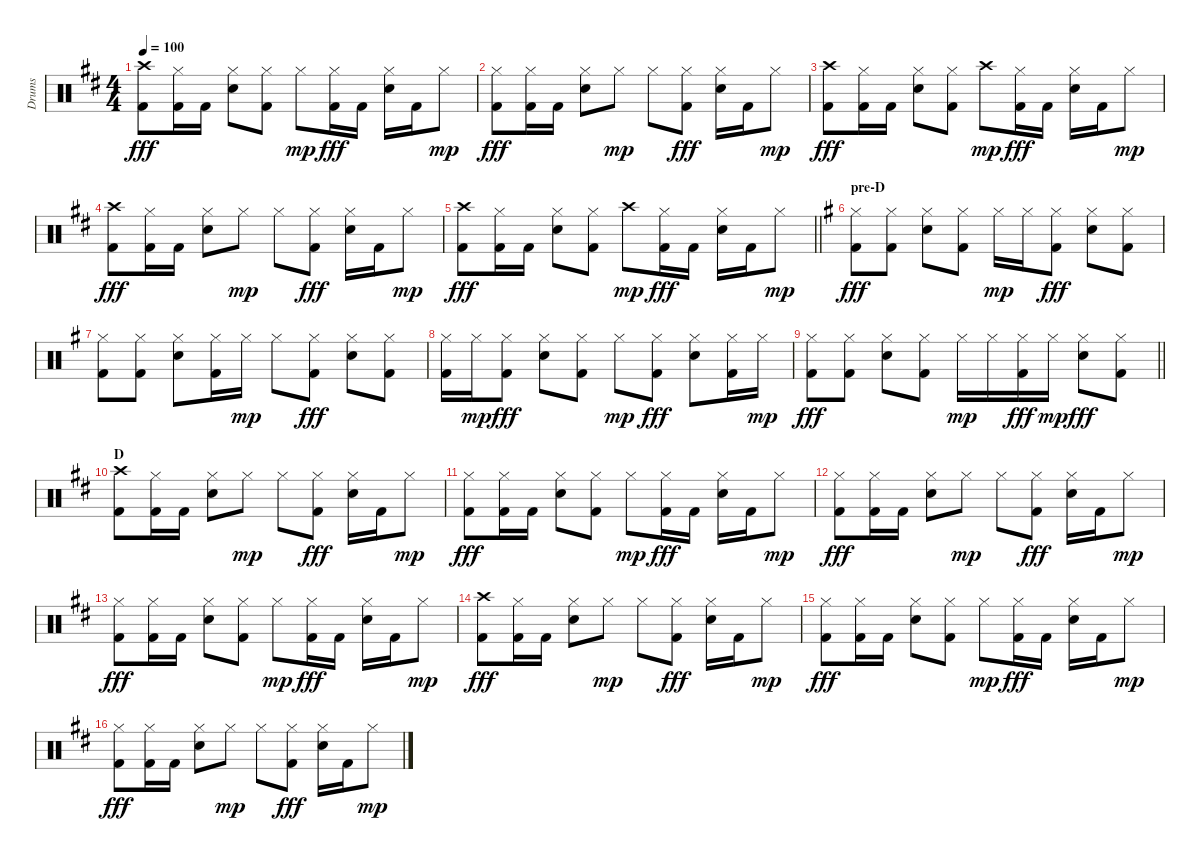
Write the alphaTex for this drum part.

\track ("Drums" "Drums") {instrument percussion}
\staff
\articulation defaults
\ts (4 4)
\tempo 100
\clef neutral
\ks bminor
("Crash high (hit)" "Kick (hit) 2").8{dy fff} ("Hi-Hat (closed)" "Kick (hit) 2").16 "Kick (hit) 2".16 ("Hi-Hat (closed)" "Electric Snare (hit)").8 ("Hi-Hat (closed)" "Kick (hit) 2").8 "Hi-Hat (closed)".8{dy mp} ("Hi-Hat (closed)" "Kick (hit) 2").16{dy fff} "Kick (hit) 2".16 ("Hi-Hat (closed)" "Electric Snare (hit)").16 "Kick (hit) 2".16 "Hi-Hat (closed)".8{dy mp} |
("Hi-Hat (closed)" "Kick (hit) 2").8{dy fff} ("Hi-Hat (closed)" "Kick (hit) 2").16 "Kick (hit) 2".16 ("Hi-Hat (closed)" "Electric Snare (hit)").8 "Hi-Hat (closed)".8{dy mp} "Hi-Hat (closed)".8 ("Hi-Hat (closed)" "Kick (hit) 2").8{dy fff} ("Hi-Hat (closed)" "Electric Snare (hit)").16 "Kick (hit) 2".16 "Hi-Hat (closed)".8{dy mp} |
("Crash high (hit)" "Kick (hit) 2").8{dy fff} ("Hi-Hat (closed)" "Kick (hit) 2").16 "Kick (hit) 2".16 ("Hi-Hat (closed)" "Electric Snare (hit)").8 ("Hi-Hat (closed)" "Kick (hit) 2").8 "Crash high (hit)".8{dy mp} ("Hi-Hat (closed)" "Kick (hit) 2").16{dy fff} "Kick (hit) 2".16 ("Hi-Hat (closed)" "Electric Snare (hit)").16 "Kick (hit) 2".16 "Hi-Hat (closed)".8{dy mp} |
("Crash high (hit)" "Kick (hit) 2").8{dy fff} ("Hi-Hat (closed)" "Kick (hit) 2").16 "Kick (hit) 2".16 ("Hi-Hat (closed)" "Electric Snare (hit)").8 "Hi-Hat (closed)".8{dy mp} "Hi-Hat (closed)".8 ("Hi-Hat (closed)" "Kick (hit) 2").8{dy fff} ("Hi-Hat (closed)" "Electric Snare (hit)").16 "Kick (hit) 2".16 "Hi-Hat (closed)".8{dy mp} |
\barLineRight lightlight
("Crash high (hit)" "Kick (hit) 2").8{dy fff} ("Hi-Hat (closed)" "Kick (hit) 2").16 "Kick (hit) 2".16 ("Hi-Hat (closed)" "Electric Snare (hit)").8 ("Hi-Hat (closed)" "Kick (hit) 2").8 "Crash high (hit)".8{dy mp} ("Hi-Hat (closed)" "Kick (hit) 2").16{dy fff} "Kick (hit) 2".16 ("Hi-Hat (closed)" "Electric Snare (hit)").16 "Kick (hit) 2".16 "Hi-Hat (closed)".8{dy mp} |
\section ("" "pre-D")
\ks eminor
("Hi-Hat (closed)" "Kick (hit) 2").8{dy fff} ("Hi-Hat (closed)" "Kick (hit) 2").8 ("Hi-Hat (closed)" "Electric Snare (hit)").8 ("Hi-Hat (closed)" "Kick (hit) 2").8 "Hi-Hat (closed)".16{dy mp} "Hi-Hat (closed)".16 ("Hi-Hat (closed)" "Kick (hit) 2").8{dy fff} ("Hi-Hat (closed)" "Electric Snare (hit)").8 ("Hi-Hat (closed)" "Kick (hit) 2").8 |
("Hi-Hat (closed)" "Kick (hit) 2").8 ("Hi-Hat (closed)" "Kick (hit) 2").8 ("Hi-Hat (closed)" "Electric Snare (hit)").8 ("Hi-Hat (closed)" "Kick (hit) 2").16 "Hi-Hat (closed)".16{dy mp} "Hi-Hat (closed)".8 ("Hi-Hat (closed)" "Kick (hit) 2").8{dy fff} ("Hi-Hat (closed)" "Electric Snare (hit)").8 ("Hi-Hat (closed)" "Kick (hit) 2").8 |
("Hi-Hat (closed)" "Kick (hit) 2").16 "Hi-Hat (closed)".16{dy mp} ("Hi-Hat (closed)" "Kick (hit) 2").8{dy fff} ("Hi-Hat (closed)" "Electric Snare (hit)").8 ("Hi-Hat (closed)" "Kick (hit) 2").8 "Hi-Hat (closed)".8{dy mp} ("Hi-Hat (closed)" "Kick (hit) 2").8{dy fff} ("Hi-Hat (closed)" "Electric Snare (hit)").8 ("Hi-Hat (closed)" "Kick (hit) 2").16 "Hi-Hat (closed)".16{dy mp} |
\barLineRight lightlight
("Hi-Hat (closed)" "Kick (hit) 2").8{dy fff} ("Hi-Hat (closed)" "Kick (hit) 2").8 ("Hi-Hat (closed)" "Electric Snare (hit)").8 ("Hi-Hat (closed)" "Kick (hit) 2").8 "Hi-Hat (closed)".16{dy mp} "Hi-Hat (closed)".16 ("Hi-Hat (closed)" "Kick (hit) 2").16{dy fff} "Hi-Hat (closed)".16{dy mp} ("Hi-Hat (closed)" "Electric Snare (hit)").8{dy fff} ("Hi-Hat (closed)" "Kick (hit) 2").8 |
\section ("" "D")
\ks bminor
("Crash high (hit)" "Kick (hit) 2").8 ("Hi-Hat (closed)" "Kick (hit) 2").16 "Kick (hit) 2".16 ("Hi-Hat (closed)" "Electric Snare (hit)").8 "Hi-Hat (closed)".8{dy mp} "Hi-Hat (closed)".8 ("Hi-Hat (closed)" "Kick (hit) 2").8{dy fff} ("Hi-Hat (closed)" "Electric Snare (hit)").16 "Kick (hit) 2".16 "Hi-Hat (closed)".8{dy mp} |
("Hi-Hat (closed)" "Kick (hit) 2").8{dy fff} ("Hi-Hat (closed)" "Kick (hit) 2").16 "Kick (hit) 2".16 ("Hi-Hat (closed)" "Electric Snare (hit)").8 ("Hi-Hat (closed)" "Kick (hit) 2").8 "Hi-Hat (closed)".8{dy mp} ("Hi-Hat (closed)" "Kick (hit) 2").16{dy fff} "Kick (hit) 2".16 ("Hi-Hat (closed)" "Electric Snare (hit)").16 "Kick (hit) 2".16 "Hi-Hat (closed)".8{dy mp} |
("Hi-Hat (closed)" "Kick (hit) 2").8{dy fff} ("Hi-Hat (closed)" "Kick (hit) 2").16 "Kick (hit) 2".16 ("Hi-Hat (closed)" "Electric Snare (hit)").8 "Hi-Hat (closed)".8{dy mp} "Hi-Hat (closed)".8 ("Hi-Hat (closed)" "Kick (hit) 2").8{dy fff} ("Hi-Hat (closed)" "Electric Snare (hit)").16 "Kick (hit) 2".16 "Hi-Hat (closed)".8{dy mp} |
("Hi-Hat (closed)" "Kick (hit) 2").8{dy fff} ("Hi-Hat (closed)" "Kick (hit) 2").16 "Kick (hit) 2".16 ("Hi-Hat (closed)" "Electric Snare (hit)").8 ("Hi-Hat (closed)" "Kick (hit) 2").8 "Hi-Hat (closed)".8{dy mp} ("Hi-Hat (closed)" "Kick (hit) 2").16{dy fff} "Kick (hit) 2".16 ("Hi-Hat (closed)" "Electric Snare (hit)").16 "Kick (hit) 2".16 "Hi-Hat (closed)".8{dy mp} |
("Crash high (hit)" "Kick (hit) 2").8{dy fff} ("Hi-Hat (closed)" "Kick (hit) 2").16 "Kick (hit) 2".16 ("Hi-Hat (closed)" "Electric Snare (hit)").8 "Hi-Hat (closed)".8{dy mp} "Hi-Hat (closed)".8 ("Hi-Hat (closed)" "Kick (hit) 2").8{dy fff} ("Hi-Hat (closed)" "Electric Snare (hit)").16 "Kick (hit) 2".16 "Hi-Hat (closed)".8{dy mp} |
("Hi-Hat (closed)" "Kick (hit) 2").8{dy fff} ("Hi-Hat (closed)" "Kick (hit) 2").16 "Kick (hit) 2".16 ("Hi-Hat (closed)" "Electric Snare (hit)").8 ("Hi-Hat (closed)" "Kick (hit) 2").8 "Hi-Hat (closed)".8{dy mp} ("Hi-Hat (closed)" "Kick (hit) 2").16{dy fff} "Kick (hit) 2".16 ("Hi-Hat (closed)" "Electric Snare (hit)").16 "Kick (hit) 2".16 "Hi-Hat (closed)".8{dy mp} |
("Hi-Hat (closed)" "Kick (hit) 2").8{dy fff} ("Hi-Hat (closed)" "Kick (hit) 2").16 "Kick (hit) 2".16 ("Hi-Hat (closed)" "Electric Snare (hit)").8 "Hi-Hat (closed)".8{dy mp} "Hi-Hat (closed)".8 ("Hi-Hat (closed)" "Kick (hit) 2").8{dy fff} ("Hi-Hat (closed)" "Electric Snare (hit)").16 "Kick (hit) 2".16 "Hi-Hat (closed)".8{dy mp}
